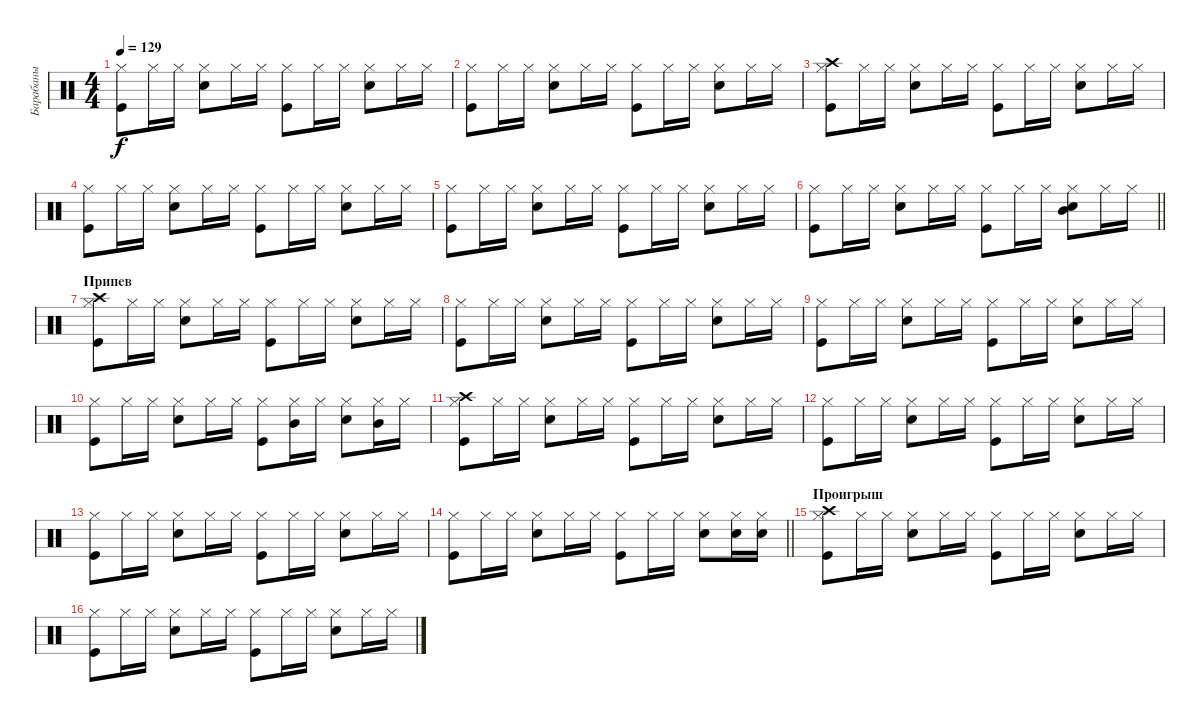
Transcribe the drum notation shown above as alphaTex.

\track ("Барабаны" "Барабаны") {instrument percussion}
\staff {score}
\articulation defaults
\ts (4 4)
\tempo 129
\clef neutral
\ks c
("Kick (hit)" "Hi-Hat (closed)").8{dy f} "Hi-Hat (closed)".16 "Hi-Hat (closed)".16 ("Snare (hit) 2" "Hi-Hat (closed)").8 "Hi-Hat (closed)".16 "Hi-Hat (closed)".16 ("Kick (hit)" "Hi-Hat (closed)").8 "Hi-Hat (closed)".16 "Hi-Hat (closed)".16 ("Snare (hit) 2" "Hi-Hat (closed)").8 "Hi-Hat (closed)".16 "Hi-Hat (closed)".16 |
("Kick (hit)" "Hi-Hat (closed)").8 "Hi-Hat (closed)".16 "Hi-Hat (closed)".16 ("Snare (hit) 2" "Hi-Hat (closed)").8 "Hi-Hat (closed)".16 "Hi-Hat (closed)".16 ("Kick (hit)" "Hi-Hat (closed)").8 "Hi-Hat (closed)".16 "Hi-Hat (closed)".16 ("Snare (hit) 2" "Hi-Hat (closed)").8 "Hi-Hat (closed)".16 "Hi-Hat (closed)".16 |
("Kick (hit)" "Hi-Hat (closed)" "Crash high (hit)").8 "Hi-Hat (closed)".16 "Hi-Hat (closed)".16 ("Snare (hit) 2" "Hi-Hat (closed)").8 "Hi-Hat (closed)".16 "Hi-Hat (closed)".16 ("Kick (hit)" "Hi-Hat (closed)").8 "Hi-Hat (closed)".16 "Hi-Hat (closed)".16 ("Snare (hit) 2" "Hi-Hat (closed)").8 "Hi-Hat (closed)".16 "Hi-Hat (closed)".16 |
("Kick (hit)" "Hi-Hat (closed)").8 "Hi-Hat (closed)".16 "Hi-Hat (closed)".16 ("Snare (hit) 2" "Hi-Hat (closed)").8 "Hi-Hat (closed)".16 "Hi-Hat (closed)".16 ("Kick (hit)" "Hi-Hat (closed)").8 "Hi-Hat (closed)".16 "Hi-Hat (closed)".16 ("Snare (hit) 2" "Hi-Hat (closed)").8 "Hi-Hat (closed)".16 "Hi-Hat (closed)".16 |
("Kick (hit)" "Hi-Hat (closed)").8 "Hi-Hat (closed)".16 "Hi-Hat (closed)".16 ("Snare (hit) 2" "Hi-Hat (closed)").8 "Hi-Hat (closed)".16 "Hi-Hat (closed)".16 ("Kick (hit)" "Hi-Hat (closed)").8 "Hi-Hat (closed)".16 "Hi-Hat (closed)".16 ("Snare (hit) 2" "Hi-Hat (closed)").8 "Hi-Hat (closed)".16 "Hi-Hat (closed)".16 |
\barLineRight lightlight
("Kick (hit)" "Hi-Hat (closed)").8 "Hi-Hat (closed)".16 "Hi-Hat (closed)".16 ("Snare (hit) 2" "Hi-Hat (closed)").8 "Hi-Hat (closed)".16 "Hi-Hat (closed)".16 ("Kick (hit)" "Hi-Hat (closed)").8 "Hi-Hat (closed)".16 "Hi-Hat (closed)".16 ("Snare (hit) 2" "Hi-Hat (closed)" "Mid Tom (hit)").8 "Hi-Hat (closed)".16 "Hi-Hat (closed)".16 |
\section ("" "Припев")
("Kick (hit)" "Hi-Hat (closed)" "Crash high (hit)").8 "Hi-Hat (closed)".16 "Hi-Hat (closed)".16 ("Snare (hit) 2" "Hi-Hat (closed)").8 "Hi-Hat (closed)".16 "Hi-Hat (closed)".16 ("Kick (hit)" "Hi-Hat (closed)").8 "Hi-Hat (closed)".16 "Hi-Hat (closed)".16 ("Snare (hit) 2" "Hi-Hat (closed)").8 "Hi-Hat (closed)".16 "Hi-Hat (closed)".16 |
("Kick (hit)" "Hi-Hat (closed)").8 "Hi-Hat (closed)".16 "Hi-Hat (closed)".16 ("Snare (hit) 2" "Hi-Hat (closed)").8 "Hi-Hat (closed)".16 "Hi-Hat (closed)".16 ("Kick (hit)" "Hi-Hat (closed)").8 "Hi-Hat (closed)".16 "Hi-Hat (closed)".16 ("Snare (hit) 2" "Hi-Hat (closed)").8 "Hi-Hat (closed)".16 "Hi-Hat (closed)".16 |
("Kick (hit)" "Hi-Hat (closed)").8 "Hi-Hat (closed)".16 "Hi-Hat (closed)".16 ("Snare (hit) 2" "Hi-Hat (closed)").8 "Hi-Hat (closed)".16 "Hi-Hat (closed)".16 ("Kick (hit)" "Hi-Hat (closed)").8 "Hi-Hat (closed)".16 "Hi-Hat (closed)".16 ("Snare (hit) 2" "Hi-Hat (closed)").8 "Hi-Hat (closed)".16 "Hi-Hat (closed)".16 |
("Kick (hit)" "Hi-Hat (closed)").8 "Hi-Hat (closed)".16 "Hi-Hat (closed)".16 ("Snare (hit) 2" "Hi-Hat (closed)").8 "Hi-Hat (closed)".16 "Hi-Hat (closed)".16 ("Kick (hit)" "Hi-Hat (closed)").8 ("Hi-Hat (closed)" "Mid Tom (hit)").16 "Hi-Hat (closed)".16 ("Snare (hit) 2" "Hi-Hat (closed)").8 ("Hi-Hat (closed)" "Mid Tom (hit)").16 "Hi-Hat (closed)".16 |
("Kick (hit)" "Hi-Hat (closed)" "Crash high (hit)").8 "Hi-Hat (closed)".16 "Hi-Hat (closed)".16 ("Snare (hit) 2" "Hi-Hat (closed)").8 "Hi-Hat (closed)".16 "Hi-Hat (closed)".16 ("Kick (hit)" "Hi-Hat (closed)").8 "Hi-Hat (closed)".16 "Hi-Hat (closed)".16 ("Snare (hit) 2" "Hi-Hat (closed)").8 "Hi-Hat (closed)".16 "Hi-Hat (closed)".16 |
("Kick (hit)" "Hi-Hat (closed)").8 "Hi-Hat (closed)".16 "Hi-Hat (closed)".16 ("Snare (hit) 2" "Hi-Hat (closed)").8 "Hi-Hat (closed)".16 "Hi-Hat (closed)".16 ("Kick (hit)" "Hi-Hat (closed)").8 "Hi-Hat (closed)".16 "Hi-Hat (closed)".16 ("Snare (hit) 2" "Hi-Hat (closed)").8 "Hi-Hat (closed)".16 "Hi-Hat (closed)".16 |
("Kick (hit)" "Hi-Hat (closed)").8 "Hi-Hat (closed)".16 "Hi-Hat (closed)".16 ("Snare (hit) 2" "Hi-Hat (closed)").8 "Hi-Hat (closed)".16 "Hi-Hat (closed)".16 ("Kick (hit)" "Hi-Hat (closed)").8 "Hi-Hat (closed)".16 "Hi-Hat (closed)".16 ("Snare (hit) 2" "Hi-Hat (closed)").8 "Hi-Hat (closed)".16 "Hi-Hat (closed)".16 |
\barLineRight lightlight
("Kick (hit)" "Hi-Hat (closed)").8 "Hi-Hat (closed)".16 "Hi-Hat (closed)".16 ("Snare (hit) 2" "Hi-Hat (closed)").8 "Hi-Hat (closed)".16 "Hi-Hat (closed)".16 ("Kick (hit)" "Hi-Hat (closed)").8 "Hi-Hat (closed)".16 "Hi-Hat (closed)".16 ("Snare (hit) 2" "Hi-Hat (closed)").8 ("Snare (hit) 2" "Hi-Hat (closed)").16 ("Snare (hit) 2" "Hi-Hat (closed)").16 |
\section ("" "Проигрыш")
("Kick (hit)" "Hi-Hat (closed)" "Crash high (hit)").8 "Hi-Hat (closed)".16 "Hi-Hat (closed)".16 ("Snare (hit) 2" "Hi-Hat (closed)").8 "Hi-Hat (closed)".16 "Hi-Hat (closed)".16 ("Kick (hit)" "Hi-Hat (closed)").8 "Hi-Hat (closed)".16 "Hi-Hat (closed)".16 ("Snare (hit) 2" "Hi-Hat (closed)").8 "Hi-Hat (closed)".16 "Hi-Hat (closed)".16 |
("Kick (hit)" "Hi-Hat (closed)").8 "Hi-Hat (closed)".16 "Hi-Hat (closed)".16 ("Snare (hit) 2" "Hi-Hat (closed)").8 "Hi-Hat (closed)".16 "Hi-Hat (closed)".16 ("Kick (hit)" "Hi-Hat (closed)").8 "Hi-Hat (closed)".16 "Hi-Hat (closed)".16 ("Snare (hit) 2" "Hi-Hat (closed)").8 "Hi-Hat (closed)".16 "Hi-Hat (closed)".16
